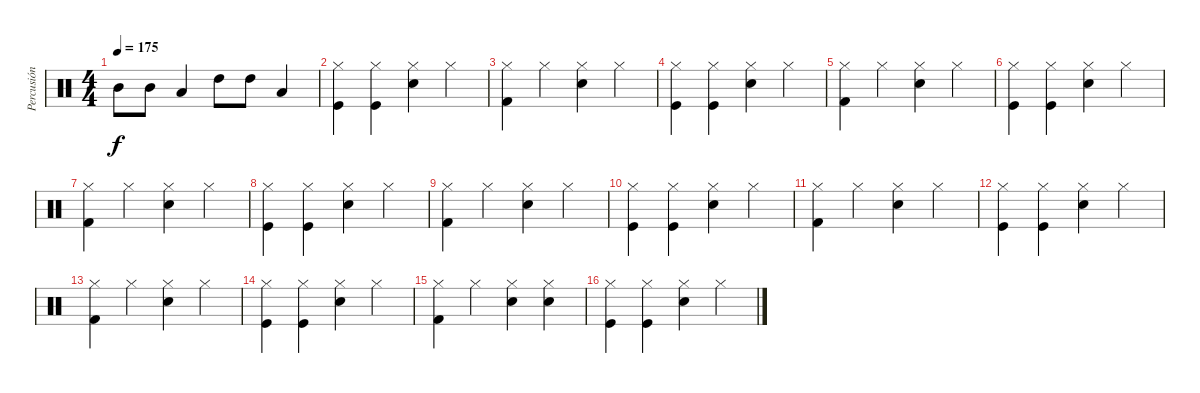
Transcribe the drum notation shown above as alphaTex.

\track ("Percusión" "Percusión") {instrument percussion}
\staff {score}
\articulation defaults
\ts (4 4)
\tempo 175
\clef neutral
\ks c "Mid Tom (hit)".8{dy f} "Mid Tom (hit)".8 "Low Tom (hit)".4 "High Tom (hit)".8 "High Tom (hit)".8 "Low Tom (hit)".4
|
("Kick (hit)" "Hi-Hat (closed)").4 ("Kick (hit)" "Hi-Hat (closed)").4 ("Snare (hit) 2" "Hi-Hat (closed)").4 "Hi-Hat (closed)".4 |
("Hi-Hat (closed)" "Kick (hit) 2").4 "Hi-Hat (closed)".4 ("Snare (hit) 2" "Hi-Hat (closed)").4 "Hi-Hat (closed)".4 |
("Kick (hit)" "Hi-Hat (closed)").4 ("Kick (hit)" "Hi-Hat (closed)").4 ("Snare (hit) 2" "Hi-Hat (closed)").4 "Hi-Hat (closed)".4 |
("Hi-Hat (closed)" "Kick (hit) 2").4 "Hi-Hat (closed)".4 ("Snare (hit) 2" "Hi-Hat (closed)").4 "Hi-Hat (closed)".4 |
("Kick (hit)" "Hi-Hat (closed)").4 ("Kick (hit)" "Hi-Hat (closed)").4 ("Snare (hit) 2" "Hi-Hat (closed)").4 "Hi-Hat (closed)".4 |
("Hi-Hat (closed)" "Kick (hit) 2").4 "Hi-Hat (closed)".4 ("Snare (hit) 2" "Hi-Hat (closed)").4 "Hi-Hat (closed)".4 |
("Kick (hit)" "Hi-Hat (closed)").4 ("Kick (hit)" "Hi-Hat (closed)").4 ("Snare (hit) 2" "Hi-Hat (closed)").4 "Hi-Hat (closed)".4 |
("Hi-Hat (closed)" "Kick (hit) 2").4 "Hi-Hat (closed)".4 ("Snare (hit) 2" "Hi-Hat (closed)").4 "Hi-Hat (closed)".4 |
("Kick (hit)" "Hi-Hat (closed)").4 ("Kick (hit)" "Hi-Hat (closed)").4 ("Snare (hit) 2" "Hi-Hat (closed)").4 "Hi-Hat (closed)".4 |
("Hi-Hat (closed)" "Kick (hit) 2").4 "Hi-Hat (closed)".4 ("Snare (hit) 2" "Hi-Hat (closed)").4 "Hi-Hat (closed)".4 |
("Kick (hit)" "Hi-Hat (closed)").4 ("Kick (hit)" "Hi-Hat (closed)").4 ("Snare (hit) 2" "Hi-Hat (closed)").4 "Hi-Hat (closed)".4 |
("Hi-Hat (closed)" "Kick (hit) 2").4 "Hi-Hat (closed)".4 ("Snare (hit) 2" "Hi-Hat (closed)").4 "Hi-Hat (closed)".4 |
("Kick (hit)" "Hi-Hat (closed)").4 ("Kick (hit)" "Hi-Hat (closed)").4 ("Snare (hit) 2" "Hi-Hat (closed)").4 "Hi-Hat (closed)".4 |
("Hi-Hat (closed)" "Kick (hit) 2").4 "Hi-Hat (closed)".4 ("Snare (hit) 2" "Hi-Hat (closed)").4 ("Hi-Hat (closed)" "Snare (hit) 2").4 |
("Kick (hit)" "Hi-Hat (closed)").4 ("Kick (hit)" "Hi-Hat (closed)").4 ("Snare (hit) 2" "Hi-Hat (closed)").4 "Hi-Hat (closed)".4
